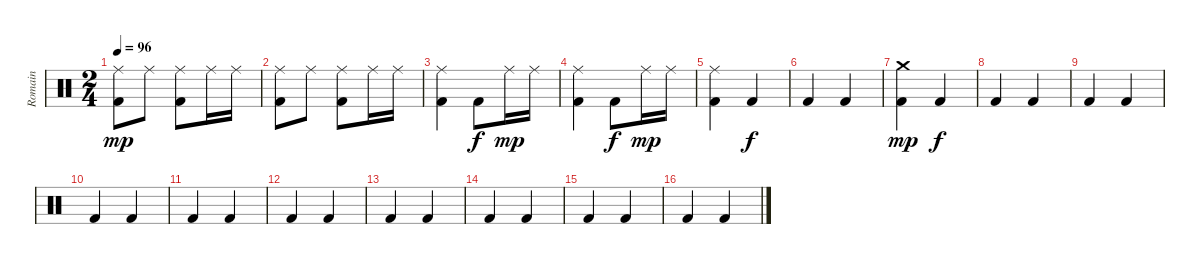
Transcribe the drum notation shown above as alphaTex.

\track ("Romain" "Romain") {instrument percussion}
\staff {score}
\articulation defaults
\ts (2 4)
\tempo 96
\clef neutral
\ks c
("Kick (hit) 2" "Ride (middle)").8{dy mp} "Ride (middle)".8 ("Kick (hit) 2" "Ride (middle)").8 "Ride (middle)".16 "Ride (middle)".16 |
("Kick (hit) 2" "Ride (middle)").8 "Ride (middle)".8 ("Kick (hit) 2" "Ride (middle)").8 "Ride (middle)".16 "Ride (middle)".16 |
("Kick (hit) 2" "Ride (middle)").4 "Kick (hit) 2".8{dy f} "Ride (middle)".16{dy mp} "Ride (middle)".16 |
("Kick (hit) 2" "Ride (middle)").4 "Kick (hit) 2".8{dy f} "Ride (middle)".16{dy mp} "Ride (middle)".16 |
("Kick (hit) 2" "Ride (middle)").4 "Kick (hit) 2".4{dy f} |
"Kick (hit) 2".4 "Kick (hit) 2".4 |
("Kick (hit) 2" "Crash medium (hit)").4{dy mp} "Kick (hit) 2".4{dy f} |
"Kick (hit) 2".4 "Kick (hit) 2".4 |
"Kick (hit) 2".4 "Kick (hit) 2".4 |
"Kick (hit) 2".4 "Kick (hit) 2".4 |
"Kick (hit) 2".4 "Kick (hit) 2".4 |
"Kick (hit) 2".4 "Kick (hit) 2".4 |
"Kick (hit) 2".4 "Kick (hit) 2".4 |
"Kick (hit) 2".4 "Kick (hit) 2".4 |
"Kick (hit) 2".4 "Kick (hit) 2".4 |
"Kick (hit) 2".4 "Kick (hit) 2".4
